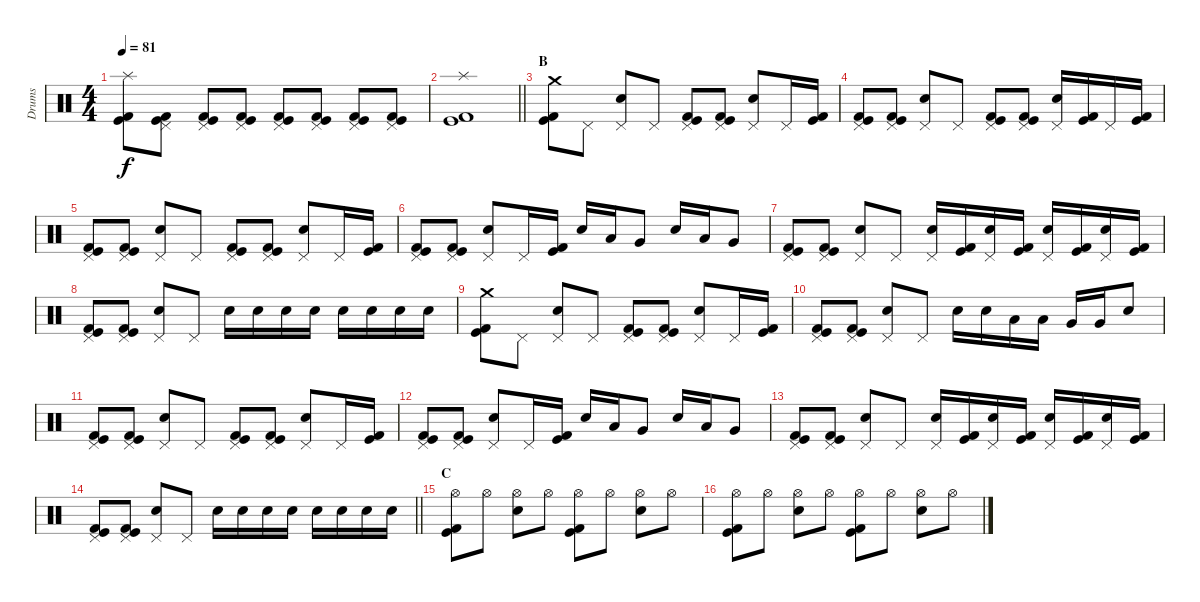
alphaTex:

\track ("Drums" "Drums") {instrument percussion}
\staff {score}
\articulation defaults
\ts (4 4)
\tempo 81
\clef neutral
\ks c
("Splash (hit)" "Kick (hit)" "Kick (hit) 2").8{dy f} ("Pedal Hi-Hat (hit)" "Kick (hit)" "Kick (hit) 2").8 ("Pedal Hi-Hat (hit)" "Kick (hit)" "Kick (hit) 2").8 ("Pedal Hi-Hat (hit)" "Kick (hit)" "Kick (hit) 2").8 ("Pedal Hi-Hat (hit)" "Kick (hit)" "Kick (hit) 2").8 ("Pedal Hi-Hat (hit)" "Kick (hit)" "Kick (hit) 2").8 ("Pedal Hi-Hat (hit)" "Kick (hit)" "Kick (hit) 2").8 ("Pedal Hi-Hat (hit)" "Kick (hit)" "Kick (hit) 2").8 |
\barLineRight lightlight
("Splash (hit)" "Kick (hit)" "Kick (hit) 2").1 |
\section ("" "B")
("Crash medium (hit)" "Kick (hit)" "Kick (hit) 2").8 "Pedal Hi-Hat (hit)".8 ("Pedal Hi-Hat (hit)" "Electric Snare (hit)").8 "Pedal Hi-Hat (hit)".8 ("Pedal Hi-Hat (hit)" "Kick (hit)" "Kick (hit) 2").8 ("Pedal Hi-Hat (hit)" "Kick (hit)" "Kick (hit) 2").8 ("Pedal Hi-Hat (hit)" "Electric Snare (hit)").8 "Pedal Hi-Hat (hit)".16 ("Kick (hit)" "Kick (hit) 2").16 |
("Pedal Hi-Hat (hit)" "Kick (hit)" "Kick (hit) 2").8 ("Pedal Hi-Hat (hit)" "Kick (hit)" "Kick (hit) 2").8 ("Pedal Hi-Hat (hit)" "Electric Snare (hit)").8 "Pedal Hi-Hat (hit)".8 ("Pedal Hi-Hat (hit)" "Kick (hit)" "Kick (hit) 2").8 ("Pedal Hi-Hat (hit)" "Kick (hit)" "Kick (hit) 2").8 ("Pedal Hi-Hat (hit)" "Electric Snare (hit)").16 ("Kick (hit)" "Kick (hit) 2").16 "Pedal Hi-Hat (hit)".16 ("Kick (hit)" "Kick (hit) 2").16 |
("Pedal Hi-Hat (hit)" "Kick (hit)" "Kick (hit) 2").8 ("Pedal Hi-Hat (hit)" "Kick (hit)" "Kick (hit) 2").8 ("Pedal Hi-Hat (hit)" "Electric Snare (hit)").8 "Pedal Hi-Hat (hit)".8 ("Pedal Hi-Hat (hit)" "Kick (hit)" "Kick (hit) 2").8 ("Pedal Hi-Hat (hit)" "Kick (hit)" "Kick (hit) 2").8 ("Pedal Hi-Hat (hit)" "Electric Snare (hit)").8 "Pedal Hi-Hat (hit)".16 ("Kick (hit)" "Kick (hit) 2").16 |
("Pedal Hi-Hat (hit)" "Kick (hit)" "Kick (hit) 2").8 ("Pedal Hi-Hat (hit)" "Kick (hit)" "Kick (hit) 2").8 ("Pedal Hi-Hat (hit)" "Electric Snare (hit)").8 "Pedal Hi-Hat (hit)".16 ("Kick (hit)" "Kick (hit) 2").16 "Electric Snare (hit)".16 "Low Tom (hit)".16 "Very Low Tom (hit)".8 "Electric Snare (hit)".16 "Low Tom (hit)".16 "Very Low Tom (hit)".8 |
("Pedal Hi-Hat (hit)" "Kick (hit)" "Kick (hit) 2").8 ("Pedal Hi-Hat (hit)" "Kick (hit)" "Kick (hit) 2").8 ("Pedal Hi-Hat (hit)" "Electric Snare (hit)").8 "Pedal Hi-Hat (hit)".8 ("Pedal Hi-Hat (hit)" "Electric Snare (hit)").16 ("Kick (hit)" "Kick (hit) 2").16 ("Pedal Hi-Hat (hit)" "Electric Snare (hit)").16 ("Kick (hit)" "Kick (hit) 2").16 ("Pedal Hi-Hat (hit)" "Electric Snare (hit)").16 ("Kick (hit)" "Kick (hit) 2").16 ("Pedal Hi-Hat (hit)" "Electric Snare (hit)").16 ("Kick (hit)" "Kick (hit) 2").16 |
("Pedal Hi-Hat (hit)" "Kick (hit)" "Kick (hit) 2").8 ("Pedal Hi-Hat (hit)" "Kick (hit)" "Kick (hit) 2").8 ("Pedal Hi-Hat (hit)" "Electric Snare (hit)").8 "Pedal Hi-Hat (hit)".8 "Electric Snare (hit)".16 "Electric Snare (hit)".16 "Electric Snare (hit)".16 "Electric Snare (hit)".16 "Electric Snare (hit)".16 "Electric Snare (hit)".16 "Electric Snare (hit)".16 "Electric Snare (hit)".16 |
("Crash medium (hit)" "Kick (hit)" "Kick (hit) 2").8 "Pedal Hi-Hat (hit)".8 ("Pedal Hi-Hat (hit)" "Electric Snare (hit)").8 "Pedal Hi-Hat (hit)".8 ("Pedal Hi-Hat (hit)" "Kick (hit)" "Kick (hit) 2").8 ("Pedal Hi-Hat (hit)" "Kick (hit)" "Kick (hit) 2").8 ("Pedal Hi-Hat (hit)" "Electric Snare (hit)").8 "Pedal Hi-Hat (hit)".16 ("Kick (hit)" "Kick (hit) 2").16 |
("Pedal Hi-Hat (hit)" "Kick (hit)" "Kick (hit) 2").8 ("Pedal Hi-Hat (hit)" "Kick (hit)" "Kick (hit) 2").8 ("Pedal Hi-Hat (hit)" "Electric Snare (hit)").8 "Pedal Hi-Hat (hit)".8 "Electric Snare (hit)".16 "Electric Snare (hit)".16 "Low Tom (hit)".16 "Low Tom (hit)".16 "Very Low Tom (hit)".16 "Very Low Tom (hit)".16 "Electric Snare (hit)".8 |
("Pedal Hi-Hat (hit)" "Kick (hit)" "Kick (hit) 2").8 ("Pedal Hi-Hat (hit)" "Kick (hit)" "Kick (hit) 2").8 ("Pedal Hi-Hat (hit)" "Electric Snare (hit)").8 "Pedal Hi-Hat (hit)".8 ("Pedal Hi-Hat (hit)" "Kick (hit)" "Kick (hit) 2").8 ("Pedal Hi-Hat (hit)" "Kick (hit)" "Kick (hit) 2").8 ("Pedal Hi-Hat (hit)" "Electric Snare (hit)").8 "Pedal Hi-Hat (hit)".16 ("Kick (hit)" "Kick (hit) 2").16 |
("Pedal Hi-Hat (hit)" "Kick (hit)" "Kick (hit) 2").8 ("Pedal Hi-Hat (hit)" "Kick (hit)" "Kick (hit) 2").8 ("Pedal Hi-Hat (hit)" "Electric Snare (hit)").8 "Pedal Hi-Hat (hit)".16 ("Kick (hit)" "Kick (hit) 2").16 "Electric Snare (hit)".16 "Low Tom (hit)".16 "Very Low Tom (hit)".8 "Electric Snare (hit)".16 "Low Tom (hit)".16 "Very Low Tom (hit)".8 |
("Pedal Hi-Hat (hit)" "Kick (hit)" "Kick (hit) 2").8 ("Pedal Hi-Hat (hit)" "Kick (hit)" "Kick (hit) 2").8 ("Pedal Hi-Hat (hit)" "Electric Snare (hit)").8 "Pedal Hi-Hat (hit)".8 ("Pedal Hi-Hat (hit)" "Electric Snare (hit)").16 ("Kick (hit)" "Kick (hit) 2").16 ("Pedal Hi-Hat (hit)" "Electric Snare (hit)").16 ("Kick (hit)" "Kick (hit) 2").16 ("Pedal Hi-Hat (hit)" "Electric Snare (hit)").16 ("Kick (hit)" "Kick (hit) 2").16 ("Pedal Hi-Hat (hit)" "Electric Snare (hit)").16 ("Kick (hit)" "Kick (hit) 2").16 |
\barLineRight lightlight
("Pedal Hi-Hat (hit)" "Kick (hit)" "Kick (hit) 2").8 ("Pedal Hi-Hat (hit)" "Kick (hit)" "Kick (hit) 2").8 ("Pedal Hi-Hat (hit)" "Electric Snare (hit)").8 "Pedal Hi-Hat (hit)".8 "Electric Snare (hit)".16 "Electric Snare (hit)".16 "Electric Snare (hit)".16 "Electric Snare (hit)".16 "Electric Snare (hit)".16 "Electric Snare (hit)".16 "Electric Snare (hit)".16 "Electric Snare (hit)".16 |
\section ("" "C")
("Hi-Hat (open)" "Kick (hit)" "Kick (hit) 2").8 "Hi-Hat (open)".8 ("Hi-Hat (open)" "Electric Snare (hit)").8 "Hi-Hat (open)".8 ("Hi-Hat (open)" "Kick (hit)" "Kick (hit) 2").8 "Hi-Hat (open)".8 ("Hi-Hat (open)" "Electric Snare (hit)").8 "Hi-Hat (open)".8 |
("Hi-Hat (open)" "Kick (hit)" "Kick (hit) 2").8 "Hi-Hat (open)".8 ("Hi-Hat (open)" "Electric Snare (hit)").8 "Hi-Hat (open)".8 ("Hi-Hat (open)" "Kick (hit)" "Kick (hit) 2").8 "Hi-Hat (open)".8 ("Hi-Hat (open)" "Electric Snare (hit)").8 "Hi-Hat (open)".8
